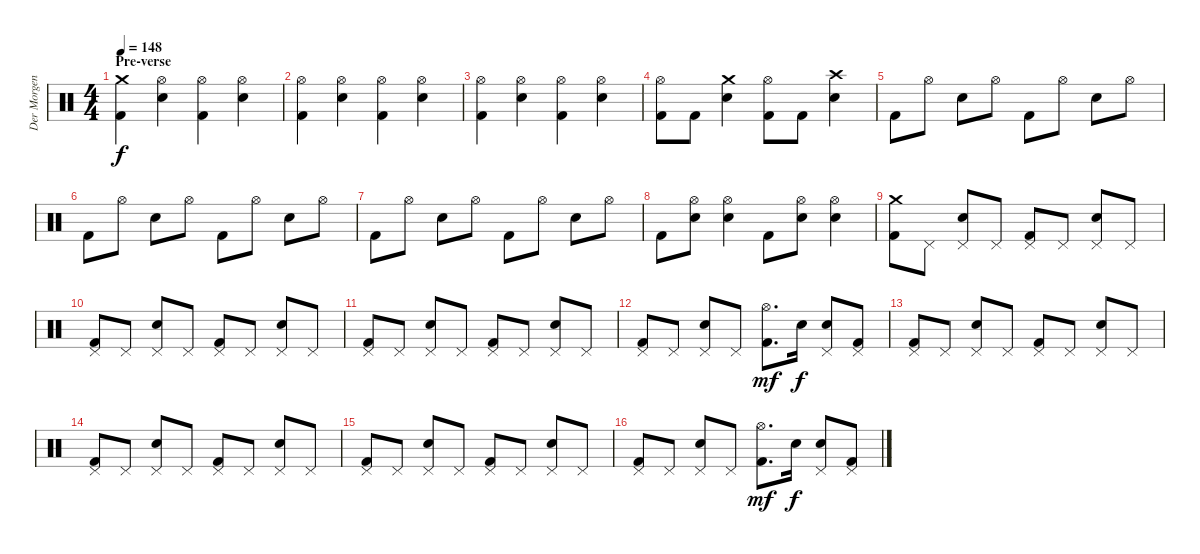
\track ("Der Morgenstern" "Der Morgen") {instrument percussion}
\staff {score}
\articulation defaults
\ts (4 4)
\section ("" "Pre-verse")
\tempo 148
\clef neutral
\ks c
("Crash medium (hit)" "Kick (hit) 2").4{dy f} ("Hi-Hat (open)" "Electric Snare (hit)").4 ("Hi-Hat (open)" "Kick (hit) 2").4 ("Hi-Hat (open)" "Electric Snare (hit)").4 |
("Hi-Hat (open)" "Kick (hit) 2").4 ("Hi-Hat (open)" "Electric Snare (hit)").4 ("Hi-Hat (open)" "Kick (hit) 2").4 ("Hi-Hat (open)" "Electric Snare (hit)").4 |
("Hi-Hat (open)" "Kick (hit) 2").4 ("Hi-Hat (open)" "Electric Snare (hit)").4 ("Hi-Hat (open)" "Kick (hit) 2").4 ("Hi-Hat (open)" "Electric Snare (hit)").4 |
("Hi-Hat (open)" "Kick (hit) 2").8 "Kick (hit) 2".8 ("Crash medium (hit)" "Electric Snare (hit)").4 ("Hi-Hat (open)" "Kick (hit) 2").8 "Kick (hit) 2".8 ("Crash high (hit)" "Electric Snare (hit)").4 |
"Kick (hit) 2".8 "Hi-Hat (open)".8 "Electric Snare (hit)".8 "Hi-Hat (open)".8 "Kick (hit) 2".8 "Hi-Hat (open)".8 "Electric Snare (hit)".8 "Hi-Hat (open)".8 |
"Kick (hit) 2".8 "Hi-Hat (open)".8 "Electric Snare (hit)".8 "Hi-Hat (open)".8 "Kick (hit) 2".8 "Hi-Hat (open)".8 "Electric Snare (hit)".8 "Hi-Hat (open)".8 |
"Kick (hit) 2".8 "Hi-Hat (open)".8 "Electric Snare (hit)".8 "Hi-Hat (open)".8 "Kick (hit) 2".8 "Hi-Hat (open)".8 "Electric Snare (hit)".8 "Hi-Hat (open)".8 |
"Kick (hit) 2".8 ("Hi-Hat (open)" "Electric Snare (hit)").8 ("Hi-Hat (open)" "Electric Snare (hit)").4 "Kick (hit) 2".8 ("Hi-Hat (open)" "Electric Snare (hit)").8 ("Hi-Hat (open)" "Electric Snare (hit)").4 |
("Crash medium (hit)" "Kick (hit) 2").8 "Pedal Hi-Hat (hit)".8 ("Pedal Hi-Hat (hit)" "Electric Snare (hit)").8 "Pedal Hi-Hat (hit)".8 ("Pedal Hi-Hat (hit)" "Kick (hit) 2").8 "Pedal Hi-Hat (hit)".8 ("Pedal Hi-Hat (hit)" "Electric Snare (hit)").8 "Pedal Hi-Hat (hit)".8 |
("Pedal Hi-Hat (hit)" "Kick (hit) 2").8 "Pedal Hi-Hat (hit)".8 ("Pedal Hi-Hat (hit)" "Electric Snare (hit)").8 "Pedal Hi-Hat (hit)".8 ("Pedal Hi-Hat (hit)" "Kick (hit) 2").8 "Pedal Hi-Hat (hit)".8 ("Pedal Hi-Hat (hit)" "Electric Snare (hit)").8 "Pedal Hi-Hat (hit)".8 |
("Pedal Hi-Hat (hit)" "Kick (hit) 2").8 "Pedal Hi-Hat (hit)".8 ("Pedal Hi-Hat (hit)" "Electric Snare (hit)").8 "Pedal Hi-Hat (hit)".8 ("Pedal Hi-Hat (hit)" "Kick (hit) 2").8 "Pedal Hi-Hat (hit)".8 ("Pedal Hi-Hat (hit)" "Electric Snare (hit)").8 "Pedal Hi-Hat (hit)".8 |
("Pedal Hi-Hat (hit)" "Kick (hit) 2").8 "Pedal Hi-Hat (hit)".8 ("Pedal Hi-Hat (hit)" "Electric Snare (hit)").8 "Pedal Hi-Hat (hit)".8 ("Hi-Hat (open)" "Kick (hit) 2").8{d dy mf} "Electric Snare (hit)".16{dy f} ("Pedal Hi-Hat (hit)" "Electric Snare (hit)").8 ("Pedal Hi-Hat (hit)" "Kick (hit) 2").8 |
("Pedal Hi-Hat (hit)" "Kick (hit) 2").8 "Pedal Hi-Hat (hit)".8 ("Pedal Hi-Hat (hit)" "Electric Snare (hit)").8 "Pedal Hi-Hat (hit)".8 ("Pedal Hi-Hat (hit)" "Kick (hit) 2").8 "Pedal Hi-Hat (hit)".8 ("Pedal Hi-Hat (hit)" "Electric Snare (hit)").8 "Pedal Hi-Hat (hit)".8 |
("Pedal Hi-Hat (hit)" "Kick (hit) 2").8 "Pedal Hi-Hat (hit)".8 ("Pedal Hi-Hat (hit)" "Electric Snare (hit)").8 "Pedal Hi-Hat (hit)".8 ("Pedal Hi-Hat (hit)" "Kick (hit) 2").8 "Pedal Hi-Hat (hit)".8 ("Pedal Hi-Hat (hit)" "Electric Snare (hit)").8 "Pedal Hi-Hat (hit)".8 |
("Pedal Hi-Hat (hit)" "Kick (hit) 2").8 "Pedal Hi-Hat (hit)".8 ("Pedal Hi-Hat (hit)" "Electric Snare (hit)").8 "Pedal Hi-Hat (hit)".8 ("Pedal Hi-Hat (hit)" "Kick (hit) 2").8 "Pedal Hi-Hat (hit)".8 ("Pedal Hi-Hat (hit)" "Electric Snare (hit)").8 "Pedal Hi-Hat (hit)".8 |
("Pedal Hi-Hat (hit)" "Kick (hit) 2").8 "Pedal Hi-Hat (hit)".8 ("Pedal Hi-Hat (hit)" "Electric Snare (hit)").8 "Pedal Hi-Hat (hit)".8 ("Hi-Hat (open)" "Kick (hit) 2").8{d dy mf} "Electric Snare (hit)".16{dy f} ("Pedal Hi-Hat (hit)" "Electric Snare (hit)").8 ("Pedal Hi-Hat (hit)" "Kick (hit) 2").8
